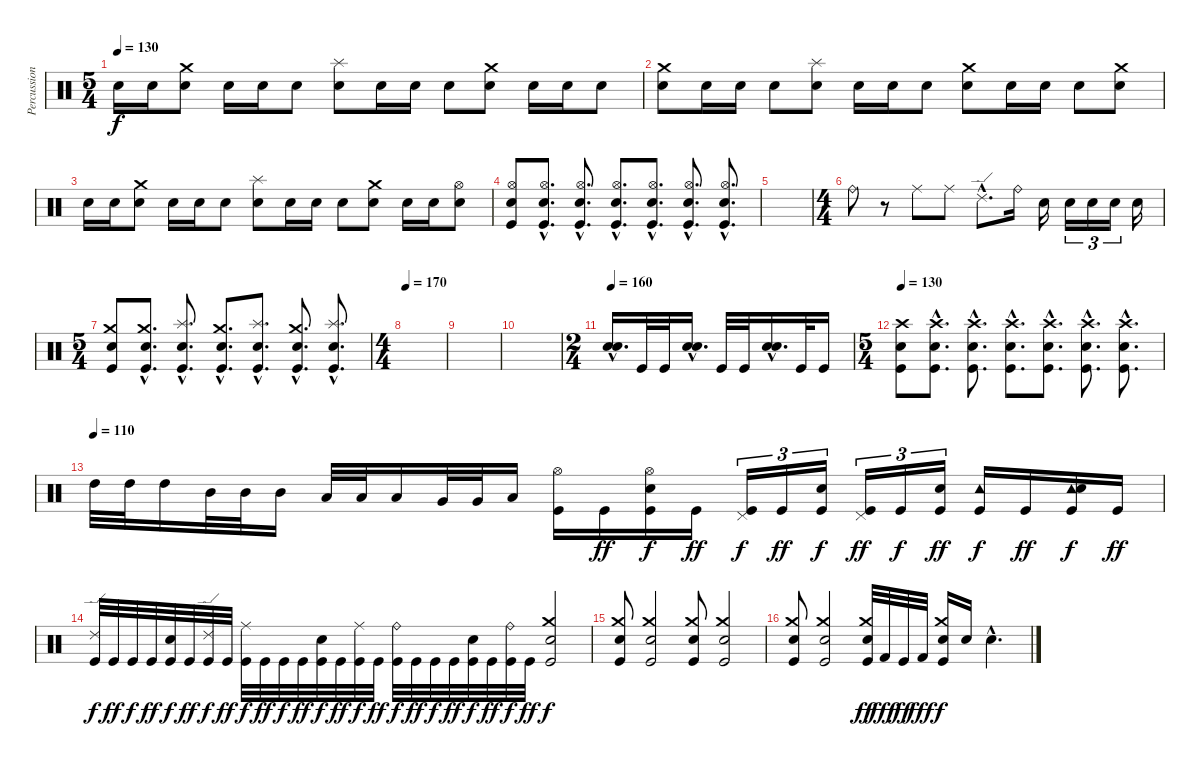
\track ("Percussioni" "Percussion") {instrument percussion}
\staff {score}
\articulation defaults
\ts (5 4)
\tempo 130
\clef neutral
\ks c "Snare (hit) 2".16{dy f} "Snare (hit) 2".16
("Crash medium (hit)" "Snare (hit) 2").8 "Snare (hit) 2".16 "Snare (hit) 2".16 "Snare (hit) 2".8 ("Splash (hit)" "Snare (hit) 2").8 "Snare (hit) 2".16 "Snare (hit) 2".16 "Snare (hit) 2".8 ("Crash medium (hit)" "Snare (hit) 2").8 "Snare (hit) 2".16 "Snare (hit) 2".16 "Snare (hit) 2".8 |
("Crash medium (hit)" "Snare (hit) 2").8 "Snare (hit) 2".16 "Snare (hit) 2".16 "Snare (hit) 2".8 ("Splash (hit)" "Snare (hit) 2").8 "Snare (hit) 2".16 "Snare (hit) 2".16 "Snare (hit) 2".8 ("Crash medium (hit)" "Snare (hit) 2").8 "Snare (hit) 2".16 "Snare (hit) 2".16 "Snare (hit) 2".8 ("Crash medium (hit)" "Snare (hit) 2").8 |
"Snare (hit) 2".16 "Snare (hit) 2".16 ("Crash medium (hit)" "Snare (hit) 2").8 "Snare (hit) 2".16 "Snare (hit) 2".16 "Snare (hit) 2".8 ("Splash (hit)" "Snare (hit) 2").8 "Snare (hit) 2".16 "Snare (hit) 2".16 "Snare (hit) 2".8 ("Crash medium (hit)" "Snare (hit) 2").8 "Snare (hit) 2".16 "Snare (hit) 2".16 ("Hi-Hat (open)" "Snare (hit) 2").8 |
("Hi-Hat (open)" "Snare (hit) 2" "Kick (hit)").8 ("Hi-Hat (open)"{hac} "Snare (hit) 2"{hac} "Kick (hit)"{hac}).8{d} ("Hi-Hat (open)"{hac} "Snare (hit) 2"{hac} "Kick (hit)"{hac}).8{d} ("Hi-Hat (open)"{hac} "Snare (hit) 2"{hac} "Kick (hit)"{hac}).8{d} ("Hi-Hat (open)"{hac} "Snare (hit) 2"{hac} "Kick (hit)"{hac}).8{d} ("Hi-Hat (open)"{hac} "Snare (hit) 2"{hac} "Kick (hit)"{hac}).8{d} ("Hi-Hat (open)"{hac} "Snare (hit) 2"{hac} "Kick (hit)"{hac}).8{d} |
|
\ts (4 4)
"Ride (bell)".8 r.8 "Ride (middle)".8 "Ride (middle)".8 "Ride (edge) 2"{hac}.8{d} "Ride (bell)".16 "Snare (hit) 2".16 "Snare (hit) 2".16{tu (3 2)} "Snare (hit) 2".16{tu (3 2)} "Snare (hit) 2".16{tu (3 2)} "Snare (hit) 2".16 |
\ts (5 4)
("Crash medium (hit)" "Snare (hit) 2" "Kick (hit)").8 ("Crash medium (hit)"{hac} "Snare (hit) 2"{hac} "Kick (hit)"{hac}).8{d} ("Splash (hit)"{hac} "Snare (hit) 2"{hac} "Kick (hit)"{hac}).8{d} ("Crash medium (hit)"{hac} "Snare (hit) 2"{hac} "Kick (hit)"{hac}).8{d} ("Splash (hit)"{hac} "Snare (hit) 2"{hac} "Kick (hit)"{hac}).8{d} ("Crash medium (hit)"{hac} "Snare (hit) 2"{hac} "Kick (hit)"{hac}).8{d} ("Splash (hit)"{hac} "Snare (hit) 2"{hac} "Kick (hit)"{hac}).8{d} |
\ts (4 4)
\tempo 170
|
|
|
\ts (2 4)
\tempo 160
("Snare (hit) 2"{hac} "Electric Snare (hit)"{hac}).16{d} "Kick (hit)".32 "Kick (hit)".32 ("Snare (hit) 2"{hac} "Electric Snare (hit)"{hac}).16{d} "Kick (hit)".32 "Kick (hit)".32 ("Snare (hit) 2"{hac} "Electric Snare (hit)"{hac}).16{d} "Kick (hit)".32 "Kick (hit)".16 |
\ts (5 4)
\tempo 130
("Crash high (hit)" "Snare (hit) 2" "Kick (hit)").8 ("Crash high (hit)"{hac} "Snare (hit) 2"{hac} "Kick (hit)"{hac}).8{d} ("Crash high (hit)"{hac} "Snare (hit) 2"{hac} "Kick (hit)"{hac}).8{d} ("Crash high (hit)"{hac} "Snare (hit) 2"{hac} "Kick (hit)"{hac}).8{d} ("Crash high (hit)"{hac} "Snare (hit) 2"{hac} "Kick (hit)"{hac}).8{d} ("Crash high (hit)"{hac} "Snare (hit) 2"{hac} "Kick (hit)"{hac}).8{d} ("Crash high (hit)"{hac} "Snare (hit) 2"{hac} "Kick (hit)"{hac}).8{d} |
\tempo (110)
"High Tom (hit)".32 "High Tom (hit)".32 "High Tom (hit)".16 "Mid Tom (hit)".32 "Mid Tom (hit)".32 "Mid Tom (hit)".16 "Low Tom (hit)".32 "Low Tom (hit)".32 "Low Tom (hit)".16 "Very Low Tom (hit)".32 "Very Low Tom (hit)".32 "Low Tom (hit)".16 ("Hi-Hat (open)" "Kick (hit)").16 "Kick (hit)".16{dy ff} ("Hi-Hat (open)" "Snare (hit) 2" "Kick (hit)").16{dy f} "Kick (hit)".16{dy ff} ("Pedal Hi-Hat (hit)" "Kick (hit)").16{tu (3 2) dy f} "Kick (hit)".16{tu (3 2) dy ff} ("Snare (hit) 2" "Kick (hit)").16{tu (3 2) dy f} ("Pedal Hi-Hat (hit)" "Kick (hit)").16{tu (3 2) dy ff} "Kick (hit)".16{tu (3 2) dy f} ("Snare (hit) 2" "Kick (hit)").16{tu (3 2) dy ff} ("Tambourine (hit)" "Kick (hit)").16{dy f} "Kick (hit)".16{dy ff} ("Tambourine (hit)" "Snare (hit) 2" "Kick (hit)").16{dy f} "Kick (hit)".16{dy ff} |
("Ride (edge) 2" "Kick (hit)").32{dy f} "Kick (hit)".32{dy ff} "Kick (hit)".32{dy f} "Kick (hit)".32{dy ff} ("Snare (hit) 2" "Kick (hit)").32{dy f} "Kick (hit)".32{dy ff} ("Ride (edge) 2" "Kick (hit)").32{dy f} "Kick (hit)".32{dy ff} ("Ride (middle)" "Kick (hit)").32{dy f} "Kick (hit)".32{dy ff} "Kick (hit)".32{dy f} "Kick (hit)".32{dy ff} ("Snare (hit) 2" "Kick (hit)").32{dy f} "Kick (hit)".32{dy ff} ("Ride (middle)" "Kick (hit)").32{dy f} "Kick (hit)".32{dy ff} ("Ride (bell)" "Kick (hit)").32{dy f} "Kick (hit)".32{dy ff} "Kick (hit)".32{dy f} "Kick (hit)".32{dy ff} ("Snare (hit) 2" "Kick (hit)").32{dy f} "Kick (hit)".32{dy ff} ("Ride (bell)" "Kick (hit)").32{dy f} "Kick (hit)".32{dy ff} ("Crash medium (hit)" "Snare (hit) 2" "Kick (hit)").2{dy f} |
("Crash medium (hit)" "Snare (hit) 2" "Kick (hit)").8 ("Crash medium (hit)" "Snare (hit) 2" "Kick (hit)").2 ("Crash medium (hit)" "Snare (hit) 2" "Kick (hit)").8 ("Crash medium (hit)" "Snare (hit) 2" "Kick (hit)").2 |
("Crash medium (hit)" "Snare (hit) 2" "Kick (hit)").8 ("Crash medium (hit)" "Snare (hit) 2" "Kick (hit)").2 ("Crash medium (hit)" "Snare (hit) 2" "Kick (hit)").32{dy ff} "Kick (hit) 2".32{dy fff} "Kick (hit)".32{dy ff} "Kick (hit) 2".32{dy fff} ("Crash medium (hit)" "Snare (hit) 2" "Kick (hit)").16{dy f} "Snare (hit) 2".16 "Snare (hit) 2"{hac}.4{d}
